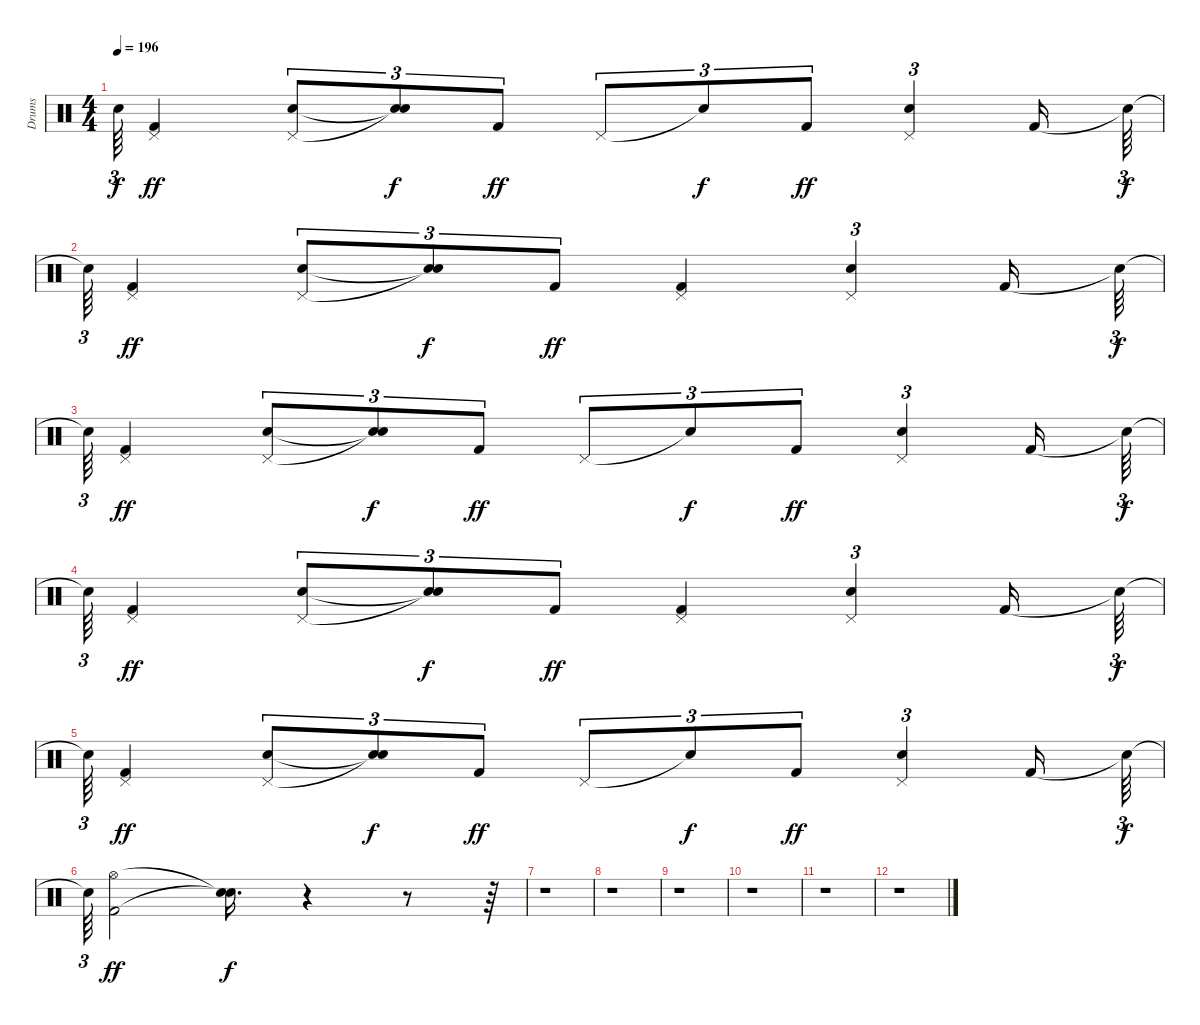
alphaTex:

\track ("Drums" "Drums") {instrument percussion}
\staff {score}
\articulation defaults
\ts (4 4)
\tempo 196
\clef neutral
\ks c "Snare (hit)"{t}.64{tu (3 2) dy f}
("Pedal Hi-Hat (hit)" "Kick (hit) 2").4{dy ff} ("Pedal Hi-Hat (hit)" "Electric Snare (hit)").8{tu (3 2)} ("Snare (hit)"{t} "Snare (hit)"{t}).8{tu (3 2) dy f} "Kick (hit) 2".8{tu (3 2) dy ff} "Pedal Hi-Hat (hit)".8{tu (3 2)} "Snare (hit)"{t}.8{tu (3 2) dy f} "Kick (hit) 2".8{tu (3 2) dy ff} ("Pedal Hi-Hat (hit)" "Electric Snare (hit)").4{tu (3 2)} "Kick (hit) 2".16 "Snare (hit)"{t}.64{tu (3 2) dy f} |
"Snare (hit)"{t}.64{tu (3 2)} ("Pedal Hi-Hat (hit)" "Kick (hit) 2").4{dy ff} ("Pedal Hi-Hat (hit)" "Electric Snare (hit)").8{tu (3 2)} ("Snare (hit)"{t} "Snare (hit)"{t}).8{tu (3 2) dy f} "Kick (hit) 2".8{tu (3 2) dy ff} ("Pedal Hi-Hat (hit)" "Kick (hit) 2").4 ("Pedal Hi-Hat (hit)" "Electric Snare (hit)").4{tu (3 2)} "Kick (hit) 2".16 "Snare (hit)"{t}.64{tu (3 2) dy f} |
"Snare (hit)"{t}.64{tu (3 2)} ("Pedal Hi-Hat (hit)" "Kick (hit) 2").4{dy ff} ("Pedal Hi-Hat (hit)" "Electric Snare (hit)").8{tu (3 2)} ("Snare (hit)"{t} "Snare (hit)"{t}).8{tu (3 2) dy f} "Kick (hit) 2".8{tu (3 2) dy ff} "Pedal Hi-Hat (hit)".8{tu (3 2)} "Snare (hit)"{t}.8{tu (3 2) dy f} "Kick (hit) 2".8{tu (3 2) dy ff} ("Pedal Hi-Hat (hit)" "Electric Snare (hit)").4{tu (3 2)} "Kick (hit) 2".16 "Snare (hit)"{t}.64{tu (3 2) dy f} |
"Snare (hit)"{t}.64{tu (3 2)} ("Pedal Hi-Hat (hit)" "Kick (hit) 2").4{dy ff} ("Pedal Hi-Hat (hit)" "Electric Snare (hit)").8{tu (3 2)} ("Snare (hit)"{t} "Snare (hit)"{t}).8{tu (3 2) dy f} "Kick (hit) 2".8{tu (3 2) dy ff} ("Pedal Hi-Hat (hit)" "Kick (hit) 2").4 ("Pedal Hi-Hat (hit)" "Electric Snare (hit)").4{tu (3 2)} "Kick (hit) 2".16 "Snare (hit)"{t}.64{tu (3 2) dy f} |
"Snare (hit)"{t}.64{tu (3 2)} ("Pedal Hi-Hat (hit)" "Kick (hit) 2").4{dy ff} ("Pedal Hi-Hat (hit)" "Electric Snare (hit)").8{tu (3 2)} ("Snare (hit)"{t} "Snare (hit)"{t}).8{tu (3 2) dy f} "Kick (hit) 2".8{tu (3 2) dy ff} "Pedal Hi-Hat (hit)".8{tu (3 2)} "Snare (hit)"{t}.8{tu (3 2) dy f} "Kick (hit) 2".8{tu (3 2) dy ff} ("Pedal Hi-Hat (hit)" "Electric Snare (hit)").4{tu (3 2)} "Kick (hit) 2".16 "Snare (hit)"{t}.64{tu (3 2) dy f} |
"Snare (hit)"{t}.64{tu (3 2)} ("Hi-Hat (open)" "Kick (hit) 2").2{dy ff} ("Snare (hit)"{t} "Snare (hit)"{t}).16{d dy f} r.4 r.8 r.64 |
r.1 |
r.1 |
r.1 |
r.1 |
r.1 |
r.1
